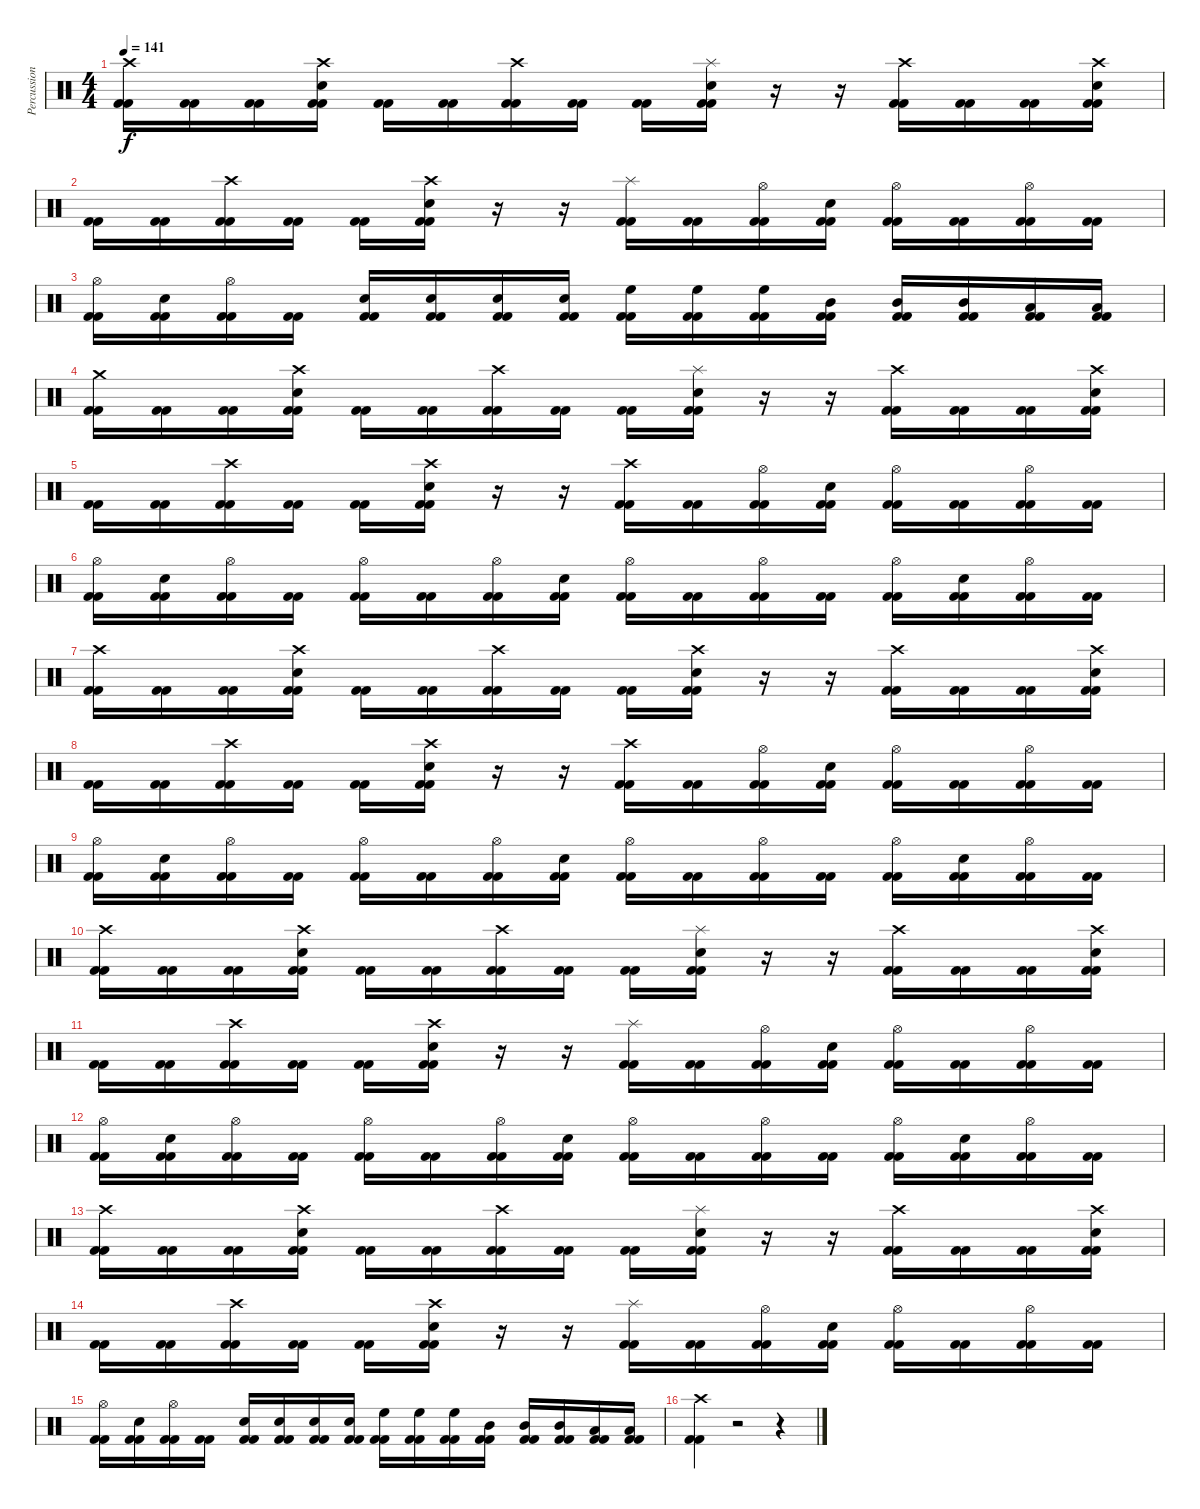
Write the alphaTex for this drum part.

\track ("Percussions" "Percussion") {instrument percussion}
\staff {score}
\articulation defaults
\ts (4 4)
\tempo 141
\clef neutral
\ks c
("Crash high (hit)" "Kick (hit) 2" "Kick (hit) 2").16{dy f} ("Kick (hit) 2" "Kick (hit) 2").16 ("Kick (hit) 2" "Kick (hit) 2").16 ("Crash high (hit)" "Snare (hit) 2" "Kick (hit) 2" "Kick (hit) 2").16 ("Kick (hit) 2" "Kick (hit) 2").16 ("Kick (hit) 2" "Kick (hit) 2").16 ("Crash high (hit)" "Kick (hit) 2" "Kick (hit) 2").16 ("Kick (hit) 2" "Kick (hit) 2").16 ("Kick (hit) 2" "Kick (hit) 2").16 ("Splash (hit)" "Snare (hit) 2" "Kick (hit) 2" "Kick (hit) 2").16 r.16 r.16 ("Crash high (hit)" "Kick (hit) 2" "Kick (hit) 2").16 ("Kick (hit) 2" "Kick (hit) 2").16 ("Kick (hit) 2" "Kick (hit) 2").16 ("Crash high (hit)" "Snare (hit) 2" "Kick (hit) 2" "Kick (hit) 2").16 |
("Kick (hit) 2" "Kick (hit) 2").16 ("Kick (hit) 2" "Kick (hit) 2").16 ("Crash high (hit)" "Kick (hit) 2" "Kick (hit) 2").16 ("Kick (hit) 2" "Kick (hit) 2").16 ("Kick (hit) 2" "Kick (hit) 2").16 ("Crash high (hit)" "Snare (hit) 2" "Kick (hit) 2" "Kick (hit) 2").16 r.16 r.16 ("Splash (hit)" "Kick (hit) 2" "Kick (hit) 2").16 ("Kick (hit) 2" "Kick (hit) 2").16 ("Hi-Hat (open)" "Kick (hit) 2" "Kick (hit) 2").16 ("Snare (hit) 2" "Kick (hit) 2" "Kick (hit) 2").16 ("Hi-Hat (open)" "Kick (hit) 2" "Kick (hit) 2").16 ("Kick (hit) 2" "Kick (hit) 2").16 ("Hi-Hat (open)" "Kick (hit) 2" "Kick (hit) 2").16 ("Kick (hit) 2" "Kick (hit) 2").16 |
("Hi-Hat (open)" "Kick (hit) 2" "Kick (hit) 2").16 ("Snare (hit) 2" "Kick (hit) 2" "Kick (hit) 2").16 ("Hi-Hat (open)" "Kick (hit) 2" "Kick (hit) 2").16 ("Kick (hit) 2" "Kick (hit) 2").16 ("Snare (hit) 2" "Kick (hit) 2" "Kick (hit) 2").16 ("Snare (hit) 2" "Kick (hit) 2" "Kick (hit) 2").16 ("Snare (hit) 2" "Kick (hit) 2" "Kick (hit) 2").16 ("Snare (hit) 2" "Kick (hit) 2" "Kick (hit) 2").16 ("High Floor Tom (hit)" "Kick (hit) 2" "Kick (hit) 2").16 ("High Floor Tom (hit)" "Kick (hit) 2" "Kick (hit) 2").16 ("High Floor Tom (hit)" "Kick (hit) 2" "Kick (hit) 2").16 ("Mid Tom (hit)" "Kick (hit) 2" "Kick (hit) 2").16 ("Mid Tom (hit)" "Kick (hit) 2" "Kick (hit) 2").16 ("Mid Tom (hit)" "Kick (hit) 2" "Kick (hit) 2").16 ("Low Tom (hit)" "Kick (hit) 2" "Kick (hit) 2").16 ("Low Tom (hit)" "Kick (hit) 2" "Kick (hit) 2").16 |
("Crash medium (hit)" "Kick (hit) 2" "Kick (hit) 2").16 ("Kick (hit) 2" "Kick (hit) 2").16 ("Kick (hit) 2" "Kick (hit) 2").16 ("Crash high (hit)" "Snare (hit) 2" "Kick (hit) 2" "Kick (hit) 2").16 ("Kick (hit) 2" "Kick (hit) 2").16 ("Kick (hit) 2" "Kick (hit) 2").16 ("Crash high (hit)" "Kick (hit) 2" "Kick (hit) 2").16 ("Kick (hit) 2" "Kick (hit) 2").16 ("Kick (hit) 2" "Kick (hit) 2").16 ("Splash (hit)" "Snare (hit) 2" "Kick (hit) 2" "Kick (hit) 2").16 r.16 r.16 ("Crash high (hit)" "Kick (hit) 2" "Kick (hit) 2").16 ("Kick (hit) 2" "Kick (hit) 2").16 ("Kick (hit) 2" "Kick (hit) 2").16 ("Crash high (hit)" "Snare (hit) 2" "Kick (hit) 2" "Kick (hit) 2").16 |
("Kick (hit) 2" "Kick (hit) 2").16 ("Kick (hit) 2" "Kick (hit) 2").16 ("Crash high (hit)" "Kick (hit) 2" "Kick (hit) 2").16 ("Kick (hit) 2" "Kick (hit) 2").16 ("Kick (hit) 2" "Kick (hit) 2").16 ("Crash high (hit)" "Snare (hit) 2" "Kick (hit) 2" "Kick (hit) 2").16 r.16 r.16 ("Crash high (hit)" "Kick (hit) 2" "Kick (hit) 2").16 ("Kick (hit) 2" "Kick (hit) 2").16 ("Hi-Hat (open)" "Kick (hit) 2" "Kick (hit) 2").16 ("Snare (hit) 2" "Kick (hit) 2" "Kick (hit) 2").16 ("Hi-Hat (open)" "Kick (hit) 2" "Kick (hit) 2").16 ("Kick (hit) 2" "Kick (hit) 2").16 ("Hi-Hat (open)" "Kick (hit) 2" "Kick (hit) 2").16 ("Kick (hit) 2" "Kick (hit) 2").16 |
("Hi-Hat (open)" "Kick (hit) 2" "Kick (hit) 2").16 ("Snare (hit) 2" "Kick (hit) 2" "Kick (hit) 2").16 ("Hi-Hat (open)" "Kick (hit) 2" "Kick (hit) 2").16 ("Kick (hit) 2" "Kick (hit) 2").16 ("Hi-Hat (open)" "Kick (hit) 2" "Kick (hit) 2").16 ("Kick (hit) 2" "Kick (hit) 2").16 ("Hi-Hat (open)" "Kick (hit) 2" "Kick (hit) 2").16 ("Snare (hit) 2" "Kick (hit) 2" "Kick (hit) 2").16 ("Hi-Hat (open)" "Kick (hit) 2" "Kick (hit) 2").16 ("Kick (hit) 2" "Kick (hit) 2").16 ("Hi-Hat (open)" "Kick (hit) 2" "Kick (hit) 2").16 ("Kick (hit) 2" "Kick (hit) 2").16 ("Hi-Hat (open)" "Kick (hit) 2" "Kick (hit) 2").16 ("Snare (hit) 2" "Kick (hit) 2" "Kick (hit) 2").16 ("Hi-Hat (open)" "Kick (hit) 2" "Kick (hit) 2").16 ("Kick (hit) 2" "Kick (hit) 2").16 |
("Crash high (hit)" "Kick (hit) 2" "Kick (hit) 2").16 ("Kick (hit) 2" "Kick (hit) 2").16 ("Kick (hit) 2" "Kick (hit) 2").16 ("Crash high (hit)" "Snare (hit) 2" "Kick (hit) 2" "Kick (hit) 2").16 ("Kick (hit) 2" "Kick (hit) 2").16 ("Kick (hit) 2" "Kick (hit) 2").16 ("Crash high (hit)" "Kick (hit) 2" "Kick (hit) 2").16 ("Kick (hit) 2" "Kick (hit) 2").16 ("Kick (hit) 2" "Kick (hit) 2").16 ("Crash high (hit)" "Snare (hit) 2" "Kick (hit) 2" "Kick (hit) 2").16 r.16 r.16 ("Crash high (hit)" "Kick (hit) 2" "Kick (hit) 2").16 ("Kick (hit) 2" "Kick (hit) 2").16 ("Kick (hit) 2" "Kick (hit) 2").16 ("Crash high (hit)" "Snare (hit) 2" "Kick (hit) 2" "Kick (hit) 2").16 |
("Kick (hit) 2" "Kick (hit) 2").16 ("Kick (hit) 2" "Kick (hit) 2").16 ("Crash high (hit)" "Kick (hit) 2" "Kick (hit) 2").16 ("Kick (hit) 2" "Kick (hit) 2").16 ("Kick (hit) 2" "Kick (hit) 2").16 ("Crash high (hit)" "Snare (hit) 2" "Kick (hit) 2" "Kick (hit) 2").16 r.16 r.16 ("Crash high (hit)" "Kick (hit) 2" "Kick (hit) 2").16 ("Kick (hit) 2" "Kick (hit) 2").16 ("Hi-Hat (open)" "Kick (hit) 2" "Kick (hit) 2").16 ("Snare (hit) 2" "Kick (hit) 2" "Kick (hit) 2").16 ("Hi-Hat (open)" "Kick (hit) 2" "Kick (hit) 2").16 ("Kick (hit) 2" "Kick (hit) 2").16 ("Hi-Hat (open)" "Kick (hit) 2" "Kick (hit) 2").16 ("Kick (hit) 2" "Kick (hit) 2").16 |
("Hi-Hat (open)" "Kick (hit) 2" "Kick (hit) 2").16 ("Snare (hit) 2" "Kick (hit) 2" "Kick (hit) 2").16 ("Hi-Hat (open)" "Kick (hit) 2" "Kick (hit) 2").16 ("Kick (hit) 2" "Kick (hit) 2").16 ("Hi-Hat (open)" "Kick (hit) 2" "Kick (hit) 2").16 ("Kick (hit) 2" "Kick (hit) 2").16 ("Hi-Hat (open)" "Kick (hit) 2" "Kick (hit) 2").16 ("Snare (hit) 2" "Kick (hit) 2" "Kick (hit) 2").16 ("Hi-Hat (open)" "Kick (hit) 2" "Kick (hit) 2").16 ("Kick (hit) 2" "Kick (hit) 2").16 ("Hi-Hat (open)" "Kick (hit) 2" "Kick (hit) 2").16 ("Kick (hit) 2" "Kick (hit) 2").16 ("Hi-Hat (open)" "Kick (hit) 2" "Kick (hit) 2").16 ("Snare (hit) 2" "Kick (hit) 2" "Kick (hit) 2").16 ("Hi-Hat (open)" "Kick (hit) 2" "Kick (hit) 2").16 ("Kick (hit) 2" "Kick (hit) 2").16 |
("Crash high (hit)" "Kick (hit) 2" "Kick (hit) 2").16 ("Kick (hit) 2" "Kick (hit) 2").16 ("Kick (hit) 2" "Kick (hit) 2").16 ("Crash high (hit)" "Snare (hit) 2" "Kick (hit) 2" "Kick (hit) 2").16 ("Kick (hit) 2" "Kick (hit) 2").16 ("Kick (hit) 2" "Kick (hit) 2").16 ("Crash high (hit)" "Kick (hit) 2" "Kick (hit) 2").16 ("Kick (hit) 2" "Kick (hit) 2").16 ("Kick (hit) 2" "Kick (hit) 2").16 ("Splash (hit)" "Snare (hit) 2" "Kick (hit) 2" "Kick (hit) 2").16 r.16 r.16 ("Crash high (hit)" "Kick (hit) 2" "Kick (hit) 2").16 ("Kick (hit) 2" "Kick (hit) 2").16 ("Kick (hit) 2" "Kick (hit) 2").16 ("Crash high (hit)" "Snare (hit) 2" "Kick (hit) 2" "Kick (hit) 2").16 |
("Kick (hit) 2" "Kick (hit) 2").16 ("Kick (hit) 2" "Kick (hit) 2").16 ("Crash high (hit)" "Kick (hit) 2" "Kick (hit) 2").16 ("Kick (hit) 2" "Kick (hit) 2").16 ("Kick (hit) 2" "Kick (hit) 2").16 ("Crash high (hit)" "Snare (hit) 2" "Kick (hit) 2" "Kick (hit) 2").16 r.16 r.16 ("Splash (hit)" "Kick (hit) 2" "Kick (hit) 2").16 ("Kick (hit) 2" "Kick (hit) 2").16 ("Hi-Hat (open)" "Kick (hit) 2" "Kick (hit) 2").16 ("Snare (hit) 2" "Kick (hit) 2" "Kick (hit) 2").16 ("Hi-Hat (open)" "Kick (hit) 2" "Kick (hit) 2").16 ("Kick (hit) 2" "Kick (hit) 2").16 ("Hi-Hat (open)" "Kick (hit) 2" "Kick (hit) 2").16 ("Kick (hit) 2" "Kick (hit) 2").16 |
("Hi-Hat (open)" "Kick (hit) 2" "Kick (hit) 2").16 ("Snare (hit) 2" "Kick (hit) 2" "Kick (hit) 2").16 ("Hi-Hat (open)" "Kick (hit) 2" "Kick (hit) 2").16 ("Kick (hit) 2" "Kick (hit) 2").16 ("Hi-Hat (open)" "Kick (hit) 2" "Kick (hit) 2").16 ("Kick (hit) 2" "Kick (hit) 2").16 ("Hi-Hat (open)" "Kick (hit) 2" "Kick (hit) 2").16 ("Snare (hit) 2" "Kick (hit) 2" "Kick (hit) 2").16 ("Hi-Hat (open)" "Kick (hit) 2" "Kick (hit) 2").16 ("Kick (hit) 2" "Kick (hit) 2").16 ("Hi-Hat (open)" "Kick (hit) 2" "Kick (hit) 2").16 ("Kick (hit) 2" "Kick (hit) 2").16 ("Hi-Hat (open)" "Kick (hit) 2" "Kick (hit) 2").16 ("Snare (hit) 2" "Kick (hit) 2" "Kick (hit) 2").16 ("Hi-Hat (open)" "Kick (hit) 2" "Kick (hit) 2").16 ("Kick (hit) 2" "Kick (hit) 2").16 |
("Crash high (hit)" "Kick (hit) 2" "Kick (hit) 2").16 ("Kick (hit) 2" "Kick (hit) 2").16 ("Kick (hit) 2" "Kick (hit) 2").16 ("Crash high (hit)" "Snare (hit) 2" "Kick (hit) 2" "Kick (hit) 2").16 ("Kick (hit) 2" "Kick (hit) 2").16 ("Kick (hit) 2" "Kick (hit) 2").16 ("Crash high (hit)" "Kick (hit) 2" "Kick (hit) 2").16 ("Kick (hit) 2" "Kick (hit) 2").16 ("Kick (hit) 2" "Kick (hit) 2").16 ("Splash (hit)" "Snare (hit) 2" "Kick (hit) 2" "Kick (hit) 2").16 r.16 r.16 ("Crash high (hit)" "Kick (hit) 2" "Kick (hit) 2").16 ("Kick (hit) 2" "Kick (hit) 2").16 ("Kick (hit) 2" "Kick (hit) 2").16 ("Crash high (hit)" "Snare (hit) 2" "Kick (hit) 2" "Kick (hit) 2").16 |
("Kick (hit) 2" "Kick (hit) 2").16 ("Kick (hit) 2" "Kick (hit) 2").16 ("Crash high (hit)" "Kick (hit) 2" "Kick (hit) 2").16 ("Kick (hit) 2" "Kick (hit) 2").16 ("Kick (hit) 2" "Kick (hit) 2").16 ("Crash high (hit)" "Snare (hit) 2" "Kick (hit) 2" "Kick (hit) 2").16 r.16 r.16 ("Splash (hit)" "Kick (hit) 2" "Kick (hit) 2").16 ("Kick (hit) 2" "Kick (hit) 2").16 ("Hi-Hat (open)" "Kick (hit) 2" "Kick (hit) 2").16 ("Snare (hit) 2" "Kick (hit) 2" "Kick (hit) 2").16 ("Hi-Hat (open)" "Kick (hit) 2" "Kick (hit) 2").16 ("Kick (hit) 2" "Kick (hit) 2").16 ("Hi-Hat (open)" "Kick (hit) 2" "Kick (hit) 2").16 ("Kick (hit) 2" "Kick (hit) 2").16 |
("Hi-Hat (open)" "Kick (hit) 2" "Kick (hit) 2").16 ("Snare (hit) 2" "Kick (hit) 2" "Kick (hit) 2").16 ("Hi-Hat (open)" "Kick (hit) 2" "Kick (hit) 2").16 ("Kick (hit) 2" "Kick (hit) 2").16 ("Snare (hit) 2" "Kick (hit) 2" "Kick (hit) 2").16 ("Snare (hit) 2" "Kick (hit) 2" "Kick (hit) 2").16 ("Snare (hit) 2" "Kick (hit) 2" "Kick (hit) 2").16 ("Snare (hit) 2" "Kick (hit) 2" "Kick (hit) 2").16 ("High Floor Tom (hit)" "Kick (hit) 2" "Kick (hit) 2").16 ("High Floor Tom (hit)" "Kick (hit) 2" "Kick (hit) 2").16 ("High Floor Tom (hit)" "Kick (hit) 2" "Kick (hit) 2").16 ("Mid Tom (hit)" "Kick (hit) 2" "Kick (hit) 2").16 ("Mid Tom (hit)" "Kick (hit) 2" "Kick (hit) 2").16 ("Mid Tom (hit)" "Kick (hit) 2" "Kick (hit) 2").16 ("Low Tom (hit)" "Kick (hit) 2" "Kick (hit) 2").16 ("Low Tom (hit)" "Kick (hit) 2" "Kick (hit) 2").16 |
("Crash high (hit)" "Kick (hit) 2" "Kick (hit) 2").4 r.2 r.4
